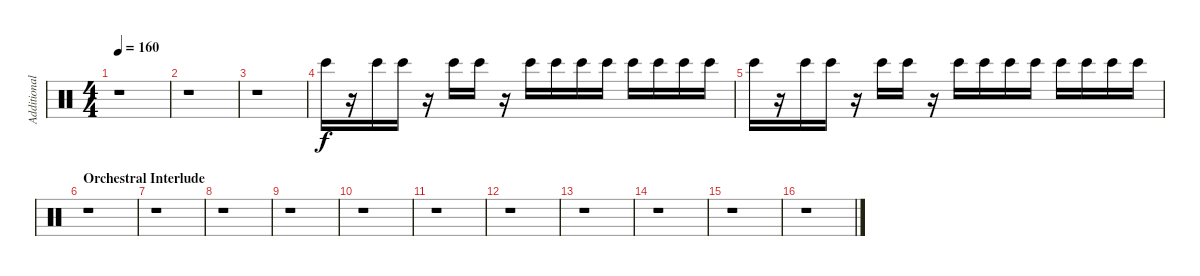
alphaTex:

\track ("Additional Percussion 2" "Additional") {instrument percussion}
\staff {score}
\articulation defaults
\ts (4 4)
\tempo 160
\clef neutral
\ks c
r.1{dy f} |
r.1 |
r.1 |
"Bongo High (hit)".16 r.16 "Bongo High (hit)".16 "Bongo High (hit)".16 r.16 "Bongo High (hit)".16 "Bongo High (hit)".16 r.16 "Bongo High (hit)".16 "Bongo High (hit)".16 "Bongo High (hit)".16 "Bongo High (hit)".16 "Bongo High (hit)".16 "Bongo High (hit)".16 "Bongo High (hit)".16 "Bongo High (hit)".16 |
"Bongo High (hit)".16 r.16 "Bongo High (hit)".16 "Bongo High (hit)".16 r.16 "Bongo High (hit)".16 "Bongo High (hit)".16 r.16 "Bongo High (hit)".16 "Bongo High (hit)".16 "Bongo High (hit)".16 "Bongo High (hit)".16 "Bongo High (hit)".16 "Bongo High (hit)".16 "Bongo High (hit)".16 "Bongo High (hit)".16 |
\section ("" "Orchestral Interlude")
r.1 |
r.1 |
r.1 |
r.1 |
r.1 |
r.1 |
r.1 |
r.1 |
r.1 |
r.1 |
r.1
